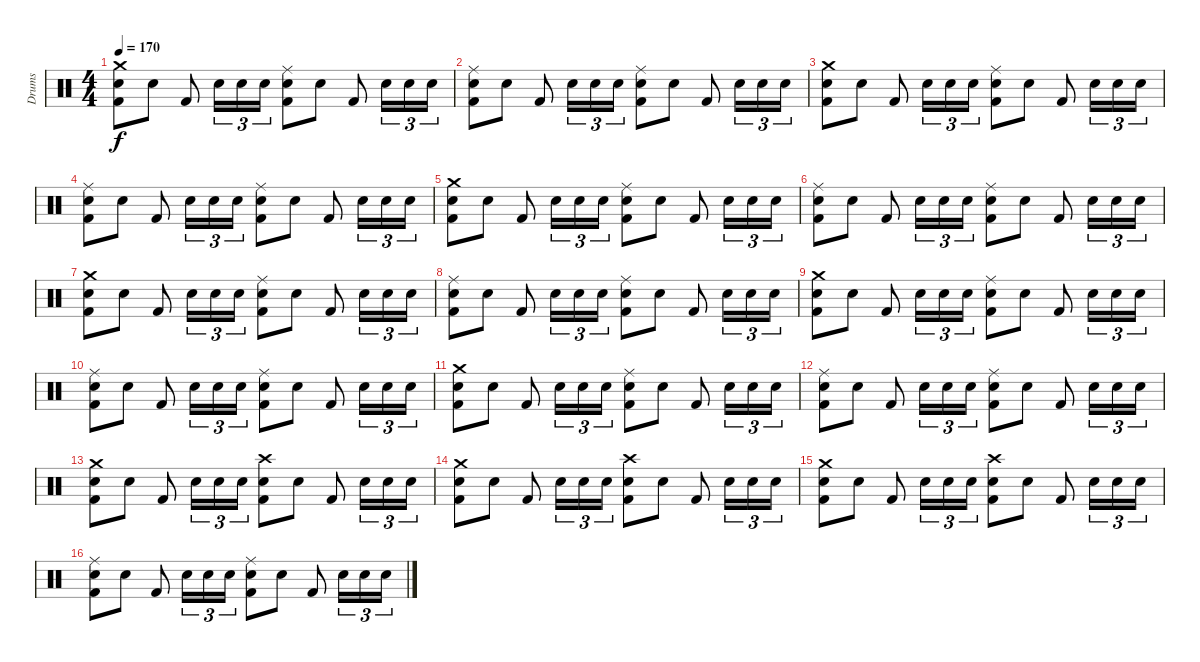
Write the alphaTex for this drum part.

\track ("Drums" "Drums") {instrument percussion}
\staff {score}
\articulation defaults
\ts (4 4)
\tempo 170
\clef neutral
\ks c
("Kick (hit) 2" "Snare (hit) 2" "Crash medium (hit)").8{dy f} "Snare (hit) 2".8 "Kick (hit) 2".8 "Snare (hit) 2".16{tu (3 2)} "Snare (hit) 2".16{tu (3 2)} "Snare (hit) 2".16{tu (3 2)} ("Kick (hit) 2" "Snare (hit) 2" "Ride (middle)").8 "Snare (hit) 2".8 "Kick (hit) 2".8 "Snare (hit) 2".16{tu (3 2)} "Snare (hit) 2".16{tu (3 2)} "Snare (hit) 2".16{tu (3 2)} |
("Kick (hit) 2" "Snare (hit) 2" "Ride (middle)").8 "Snare (hit) 2".8 "Kick (hit) 2".8 "Snare (hit) 2".16{tu (3 2)} "Snare (hit) 2".16{tu (3 2)} "Snare (hit) 2".16{tu (3 2)} ("Kick (hit) 2" "Snare (hit) 2" "Ride (middle)").8 "Snare (hit) 2".8 "Kick (hit) 2".8 "Snare (hit) 2".16{tu (3 2)} "Snare (hit) 2".16{tu (3 2)} "Snare (hit) 2".16{tu (3 2)} |
("Kick (hit) 2" "Snare (hit) 2" "Crash medium (hit)").8 "Snare (hit) 2".8 "Kick (hit) 2".8 "Snare (hit) 2".16{tu (3 2)} "Snare (hit) 2".16{tu (3 2)} "Snare (hit) 2".16{tu (3 2)} ("Kick (hit) 2" "Snare (hit) 2" "Ride (middle)").8 "Snare (hit) 2".8 "Kick (hit) 2".8 "Snare (hit) 2".16{tu (3 2)} "Snare (hit) 2".16{tu (3 2)} "Snare (hit) 2".16{tu (3 2)} |
("Kick (hit) 2" "Snare (hit) 2" "Ride (middle)").8 "Snare (hit) 2".8 "Kick (hit) 2".8 "Snare (hit) 2".16{tu (3 2)} "Snare (hit) 2".16{tu (3 2)} "Snare (hit) 2".16{tu (3 2)} ("Kick (hit) 2" "Snare (hit) 2" "Ride (middle)").8 "Snare (hit) 2".8 "Kick (hit) 2".8 "Snare (hit) 2".16{tu (3 2)} "Snare (hit) 2".16{tu (3 2)} "Snare (hit) 2".16{tu (3 2)} |
("Kick (hit) 2" "Snare (hit) 2" "Crash medium (hit)").8 "Snare (hit) 2".8 "Kick (hit) 2".8 "Snare (hit) 2".16{tu (3 2)} "Snare (hit) 2".16{tu (3 2)} "Snare (hit) 2".16{tu (3 2)} ("Kick (hit) 2" "Snare (hit) 2" "Ride (middle)").8 "Snare (hit) 2".8 "Kick (hit) 2".8 "Snare (hit) 2".16{tu (3 2)} "Snare (hit) 2".16{tu (3 2)} "Snare (hit) 2".16{tu (3 2)} |
("Kick (hit) 2" "Snare (hit) 2" "Ride (middle)").8 "Snare (hit) 2".8 "Kick (hit) 2".8 "Snare (hit) 2".16{tu (3 2)} "Snare (hit) 2".16{tu (3 2)} "Snare (hit) 2".16{tu (3 2)} ("Kick (hit) 2" "Snare (hit) 2" "Ride (middle)").8 "Snare (hit) 2".8 "Kick (hit) 2".8 "Snare (hit) 2".16{tu (3 2)} "Snare (hit) 2".16{tu (3 2)} "Snare (hit) 2".16{tu (3 2)} |
("Kick (hit) 2" "Snare (hit) 2" "Crash medium (hit)").8 "Snare (hit) 2".8 "Kick (hit) 2".8 "Snare (hit) 2".16{tu (3 2)} "Snare (hit) 2".16{tu (3 2)} "Snare (hit) 2".16{tu (3 2)} ("Kick (hit) 2" "Snare (hit) 2" "Ride (middle)").8 "Snare (hit) 2".8 "Kick (hit) 2".8 "Snare (hit) 2".16{tu (3 2)} "Snare (hit) 2".16{tu (3 2)} "Snare (hit) 2".16{tu (3 2)} |
("Kick (hit) 2" "Snare (hit) 2" "Ride (middle)").8 "Snare (hit) 2".8 "Kick (hit) 2".8 "Snare (hit) 2".16{tu (3 2)} "Snare (hit) 2".16{tu (3 2)} "Snare (hit) 2".16{tu (3 2)} ("Kick (hit) 2" "Snare (hit) 2" "Ride (middle)").8 "Snare (hit) 2".8 "Kick (hit) 2".8 "Snare (hit) 2".16{tu (3 2)} "Snare (hit) 2".16{tu (3 2)} "Snare (hit) 2".16{tu (3 2)} |
("Kick (hit) 2" "Snare (hit) 2" "Crash medium (hit)").8 "Snare (hit) 2".8 "Kick (hit) 2".8 "Snare (hit) 2".16{tu (3 2)} "Snare (hit) 2".16{tu (3 2)} "Snare (hit) 2".16{tu (3 2)} ("Kick (hit) 2" "Snare (hit) 2" "Ride (middle)").8 "Snare (hit) 2".8 "Kick (hit) 2".8 "Snare (hit) 2".16{tu (3 2)} "Snare (hit) 2".16{tu (3 2)} "Snare (hit) 2".16{tu (3 2)} |
("Kick (hit) 2" "Snare (hit) 2" "Ride (middle)").8 "Snare (hit) 2".8 "Kick (hit) 2".8 "Snare (hit) 2".16{tu (3 2)} "Snare (hit) 2".16{tu (3 2)} "Snare (hit) 2".16{tu (3 2)} ("Kick (hit) 2" "Snare (hit) 2" "Ride (middle)").8 "Snare (hit) 2".8 "Kick (hit) 2".8 "Snare (hit) 2".16{tu (3 2)} "Snare (hit) 2".16{tu (3 2)} "Snare (hit) 2".16{tu (3 2)} |
("Kick (hit) 2" "Snare (hit) 2" "Crash medium (hit)").8 "Snare (hit) 2".8 "Kick (hit) 2".8 "Snare (hit) 2".16{tu (3 2)} "Snare (hit) 2".16{tu (3 2)} "Snare (hit) 2".16{tu (3 2)} ("Kick (hit) 2" "Snare (hit) 2" "Ride (middle)").8 "Snare (hit) 2".8 "Kick (hit) 2".8 "Snare (hit) 2".16{tu (3 2)} "Snare (hit) 2".16{tu (3 2)} "Snare (hit) 2".16{tu (3 2)} |
("Kick (hit) 2" "Snare (hit) 2" "Ride (middle)").8 "Snare (hit) 2".8 "Kick (hit) 2".8 "Snare (hit) 2".16{tu (3 2)} "Snare (hit) 2".16{tu (3 2)} "Snare (hit) 2".16{tu (3 2)} ("Kick (hit) 2" "Snare (hit) 2" "Ride (middle)").8 "Snare (hit) 2".8 "Kick (hit) 2".8 "Snare (hit) 2".16{tu (3 2)} "Snare (hit) 2".16{tu (3 2)} "Snare (hit) 2".16{tu (3 2)} |
("Kick (hit) 2" "Snare (hit) 2" "Crash medium (hit)").8 "Snare (hit) 2".8 "Kick (hit) 2".8 "Snare (hit) 2".16{tu (3 2)} "Snare (hit) 2".16{tu (3 2)} "Snare (hit) 2".16{tu (3 2)} ("Kick (hit) 2" "Snare (hit) 2" "Crash high (hit)").8 "Snare (hit) 2".8 "Kick (hit) 2".8 "Snare (hit) 2".16{tu (3 2)} "Snare (hit) 2".16{tu (3 2)} "Snare (hit) 2".16{tu (3 2)} |
("Kick (hit) 2" "Snare (hit) 2" "Crash medium (hit)").8 "Snare (hit) 2".8 "Kick (hit) 2".8 "Snare (hit) 2".16{tu (3 2)} "Snare (hit) 2".16{tu (3 2)} "Snare (hit) 2".16{tu (3 2)} ("Kick (hit) 2" "Snare (hit) 2" "Crash high (hit)").8 "Snare (hit) 2".8 "Kick (hit) 2".8 "Snare (hit) 2".16{tu (3 2)} "Snare (hit) 2".16{tu (3 2)} "Snare (hit) 2".16{tu (3 2)} |
("Kick (hit) 2" "Snare (hit) 2" "Crash medium (hit)").8 "Snare (hit) 2".8 "Kick (hit) 2".8 "Snare (hit) 2".16{tu (3 2)} "Snare (hit) 2".16{tu (3 2)} "Snare (hit) 2".16{tu (3 2)} ("Kick (hit) 2" "Snare (hit) 2" "Crash high (hit)").8 "Snare (hit) 2".8 "Kick (hit) 2".8 "Snare (hit) 2".16{tu (3 2)} "Snare (hit) 2".16{tu (3 2)} "Snare (hit) 2".16{tu (3 2)} |
("Kick (hit) 2" "Snare (hit) 2" "Ride (middle)").8 "Snare (hit) 2".8 "Kick (hit) 2".8 "Snare (hit) 2".16{tu (3 2)} "Snare (hit) 2".16{tu (3 2)} "Snare (hit) 2".16{tu (3 2)} ("Kick (hit) 2" "Snare (hit) 2" "Ride (middle)").8 "Snare (hit) 2".8 "Kick (hit) 2".8 "Snare (hit) 2".16{tu (3 2)} "Snare (hit) 2".16{tu (3 2)} "Snare (hit) 2".16{tu (3 2)}
